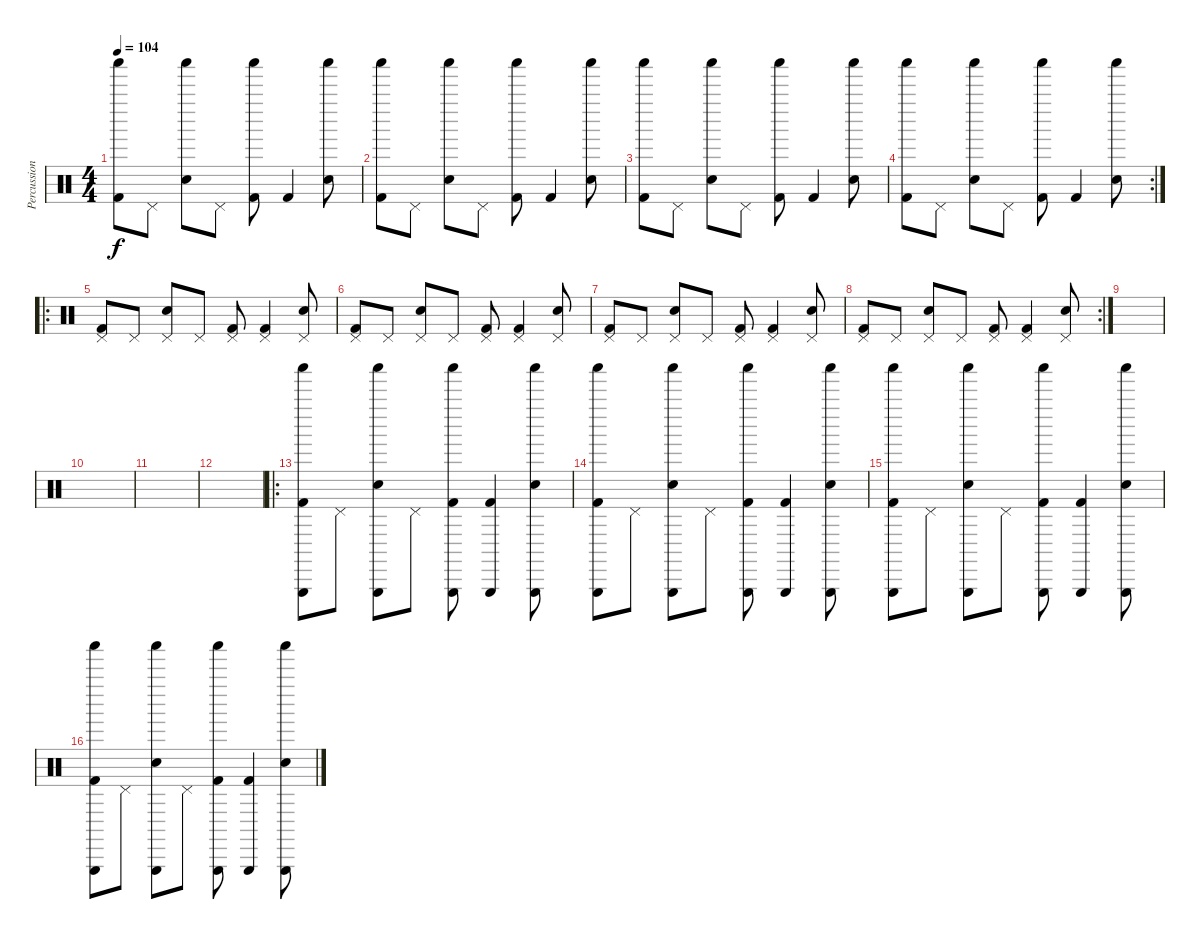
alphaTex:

\track ("Percussion" "Percussion") {instrument percussion}
\staff {score}
\articulation defaults
\ts (4 4)
\tempo 104
\clef neutral
\ks c
("Shaker (hit)" "Kick (hit) 2").8{dy f} "Pedal Hi-Hat (hit)".8 ("Shaker (hit)" "Electric Snare (hit)").8 "Pedal Hi-Hat (hit)".8 ("Shaker (hit)" "Kick (hit) 2").8 "Kick (hit) 2".4 ("Shaker (hit)" "Electric Snare (hit)").8 |
("Shaker (hit)" "Kick (hit) 2").8 "Pedal Hi-Hat (hit)".8 ("Shaker (hit)" "Electric Snare (hit)").8 "Pedal Hi-Hat (hit)".8 ("Shaker (hit)" "Kick (hit) 2").8 "Kick (hit) 2".4 ("Shaker (hit)" "Electric Snare (hit)").8 |
("Shaker (hit)" "Kick (hit) 2").8 "Pedal Hi-Hat (hit)".8 ("Shaker (hit)" "Electric Snare (hit)").8 "Pedal Hi-Hat (hit)".8 ("Shaker (hit)" "Kick (hit) 2").8 "Kick (hit) 2".4 ("Shaker (hit)" "Electric Snare (hit)").8 |
\rc 2
("Shaker (hit)" "Kick (hit) 2").8 "Pedal Hi-Hat (hit)".8 ("Shaker (hit)" "Electric Snare (hit)").8 "Pedal Hi-Hat (hit)".8 ("Shaker (hit)" "Kick (hit) 2").8 "Kick (hit) 2".4 ("Shaker (hit)" "Electric Snare (hit)").8 |
\ro
("Pedal Hi-Hat (hit)" "Kick (hit) 2").8 "Pedal Hi-Hat (hit)".8 ("Pedal Hi-Hat (hit)" "Electric Snare (hit)").8 "Pedal Hi-Hat (hit)".8 ("Pedal Hi-Hat (hit)" "Kick (hit) 2").8 ("Pedal Hi-Hat (hit)" "Kick (hit) 2").4 ("Pedal Hi-Hat (hit)" "Electric Snare (hit)").8 |
("Pedal Hi-Hat (hit)" "Kick (hit) 2").8 "Pedal Hi-Hat (hit)".8 ("Pedal Hi-Hat (hit)" "Electric Snare (hit)").8 "Pedal Hi-Hat (hit)".8 ("Pedal Hi-Hat (hit)" "Kick (hit) 2").8 ("Pedal Hi-Hat (hit)" "Kick (hit) 2").4 ("Pedal Hi-Hat (hit)" "Electric Snare (hit)").8 |
("Pedal Hi-Hat (hit)" "Kick (hit) 2").8 "Pedal Hi-Hat (hit)".8 ("Pedal Hi-Hat (hit)" "Electric Snare (hit)").8 "Pedal Hi-Hat (hit)".8 ("Pedal Hi-Hat (hit)" "Kick (hit) 2").8 ("Pedal Hi-Hat (hit)" "Kick (hit) 2").4 ("Pedal Hi-Hat (hit)" "Electric Snare (hit)").8 |
\rc 2
("Pedal Hi-Hat (hit)" "Kick (hit) 2").8 "Pedal Hi-Hat (hit)".8 ("Pedal Hi-Hat (hit)" "Electric Snare (hit)").8 "Pedal Hi-Hat (hit)".8 ("Pedal Hi-Hat (hit)" "Kick (hit) 2").8 ("Pedal Hi-Hat (hit)" "Kick (hit) 2").4 ("Pedal Hi-Hat (hit)" "Electric Snare (hit)").8 |
|
|
|
|
\ro
("Shaker (hit)" "Kick (hit) 2" "Triangle (hit)").8 "Pedal Hi-Hat (hit)".8 ("Shaker (hit)" "Electric Snare (hit)" "Triangle (hit)").8 "Pedal Hi-Hat (hit)".8 ("Shaker (hit)" "Kick (hit) 2" "Triangle (hit)").8 ("Kick (hit) 2" "Triangle (hit)").4 ("Shaker (hit)" "Electric Snare (hit)" "Triangle (hit)").8 |
("Shaker (hit)" "Kick (hit) 2" "Triangle (hit)").8 "Pedal Hi-Hat (hit)".8 ("Shaker (hit)" "Electric Snare (hit)" "Triangle (hit)").8 "Pedal Hi-Hat (hit)".8 ("Shaker (hit)" "Kick (hit) 2" "Triangle (hit)").8 ("Kick (hit) 2" "Triangle (hit)").4 ("Shaker (hit)" "Electric Snare (hit)" "Triangle (hit)").8 |
("Shaker (hit)" "Kick (hit) 2" "Triangle (hit)").8 "Pedal Hi-Hat (hit)".8 ("Shaker (hit)" "Electric Snare (hit)" "Triangle (hit)").8 "Pedal Hi-Hat (hit)".8 ("Shaker (hit)" "Kick (hit) 2" "Triangle (hit)").8 ("Kick (hit) 2" "Triangle (hit)").4 ("Shaker (hit)" "Electric Snare (hit)" "Triangle (hit)").8 |
("Shaker (hit)" "Kick (hit) 2" "Triangle (hit)").8 "Pedal Hi-Hat (hit)".8 ("Shaker (hit)" "Electric Snare (hit)" "Triangle (hit)").8 "Pedal Hi-Hat (hit)".8 ("Shaker (hit)" "Kick (hit) 2" "Triangle (hit)").8 ("Kick (hit) 2" "Triangle (hit)").4 ("Shaker (hit)" "Electric Snare (hit)" "Triangle (hit)").8
